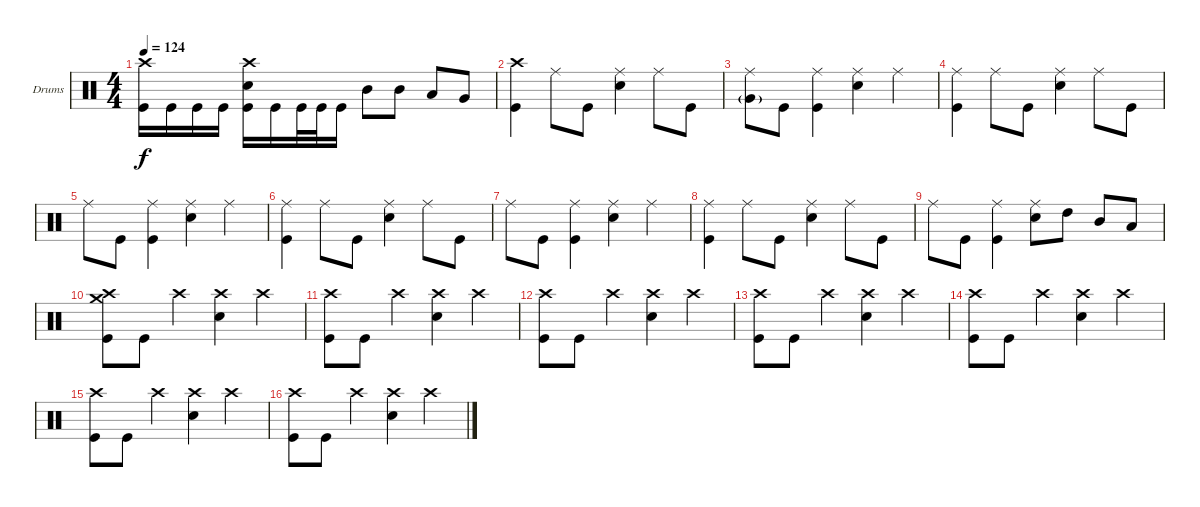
\defaultSystemsLayout 4
\bracketExtendMode groupsimilarinstruments
\firstSystemTrackNameOrientation horizontal
\otherSystemsTrackNameOrientation horizontal
\track ("Drumkit" "Drums") {instrument percussion}
\staff {score}
\articulation defaults
\ts (4 4)
\tempo 124
\clef neutral
\ks c
("Crash high (hit)" "Kick (hit)").16{dy f} "Kick (hit)".16 "Kick (hit)".16 "Kick (hit)".16 ("Crash high (hit)" "Snare (hit) 2" "Kick (hit)").16 "Kick (hit)".16 "Kick (hit)".32 "Kick (hit)".32 "Kick (hit)".16 "Mid Tom (hit)".8 "Mid Tom (hit)".8 "Low Tom (hit)".8 "Very Low Tom (hit)".8 |
("Crash high (hit)" "Kick (hit)").4 "Ride (middle)".8 "Kick (hit)".8 ("Ride (middle)" "Snare (hit) 2").4 "Ride (middle)".8 "Kick (hit)".8 |
("Ride (middle)" "Very Low Tom (hit)"{g}).8 "Kick (hit)".8 ("Ride (middle)" "Kick (hit)").4 ("Ride (middle)" "Snare (hit) 2").4 "Ride (middle)".4 |
("Ride (middle)" "Kick (hit)").4 "Ride (middle)".8 "Kick (hit)".8 ("Ride (middle)" "Snare (hit) 2").4 "Ride (middle)".8 "Kick (hit)".8 |
"Ride (middle)".8 "Kick (hit)".8 ("Ride (middle)" "Kick (hit)").4 ("Ride (middle)" "Snare (hit) 2").4 "Ride (middle)".4 |
("Ride (middle)" "Kick (hit)").4 "Ride (middle)".8 "Kick (hit)".8 ("Ride (middle)" "Snare (hit) 2").4 "Ride (middle)".8 "Kick (hit)".8 |
"Ride (middle)".8 "Kick (hit)".8 ("Ride (middle)" "Kick (hit)").4 ("Ride (middle)" "Snare (hit) 2").4 "Ride (middle)".4 |
("Ride (middle)" "Kick (hit)").4 "Ride (middle)".8 "Kick (hit)".8 ("Ride (middle)" "Snare (hit) 2").4 "Ride (middle)".8 "Kick (hit)".8 |
"Ride (middle)".8 "Kick (hit)".8 ("Ride (middle)" "Kick (hit)").4 ("Ride (middle)" "Snare (hit) 2").8 "High Tom (hit)".8 "Mid Tom (hit)".8 "Low Tom (hit)".8 |
("Crash high (hit)" "Crash medium (hit)" "Kick (hit)").8 "Kick (hit)".8 "Crash high (hit)".4 ("Crash high (hit)" "Snare (hit) 2").4 "Crash high (hit)".4 |
("Crash high (hit)" "Kick (hit)").8 "Kick (hit)".8 "Crash high (hit)".4 ("Crash high (hit)" "Snare (hit) 2").4 "Crash high (hit)".4 |
("Crash high (hit)" "Kick (hit)").8 "Kick (hit)".8 "Crash high (hit)".4 ("Crash high (hit)" "Snare (hit) 2").4 "Crash high (hit)".4 |
("Crash high (hit)" "Kick (hit)").8 "Kick (hit)".8 "Crash high (hit)".4 ("Crash high (hit)" "Snare (hit) 2").4 "Crash high (hit)".4 |
("Crash high (hit)" "Kick (hit)").8 "Kick (hit)".8 "Crash high (hit)".4 ("Crash high (hit)" "Snare (hit) 2").4 "Crash high (hit)".4 |
("Crash high (hit)" "Kick (hit)").8 "Kick (hit)".8 "Crash high (hit)".4 ("Crash high (hit)" "Snare (hit) 2").4 "Crash high (hit)".4 |
("Crash high (hit)" "Kick (hit)").8 "Kick (hit)".8 "Crash high (hit)".4 ("Crash high (hit)" "Snare (hit) 2").4 "Crash high (hit)".4
